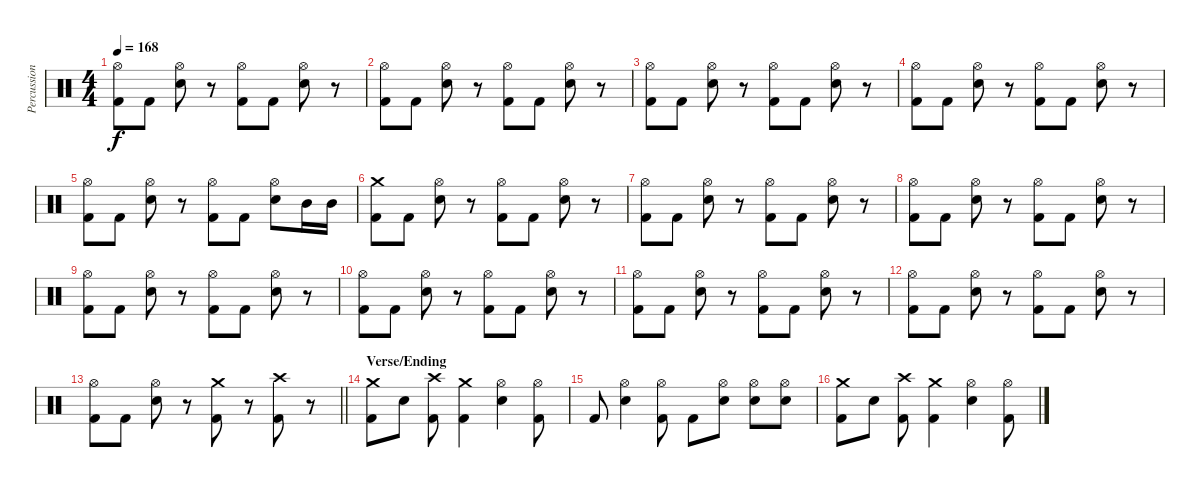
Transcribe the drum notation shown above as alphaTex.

\track ("Percussion" "Percussion") {instrument percussion}
\staff {score}
\articulation defaults
\ts (4 4)
\tempo 168
\clef neutral
\ks c
("Hi-Hat (open)" "Kick (hit) 2").8{dy f} "Kick (hit) 2".8 ("Hi-Hat (open)" "Snare (hit) 2").8 r.8 ("Hi-Hat (open)" "Kick (hit) 2").8 "Kick (hit) 2".8 ("Hi-Hat (open)" "Snare (hit) 2").8 r.8 |
("Hi-Hat (open)" "Kick (hit) 2").8 "Kick (hit) 2".8 ("Hi-Hat (open)" "Snare (hit) 2").8 r.8 ("Hi-Hat (open)" "Kick (hit) 2").8 "Kick (hit) 2".8 ("Hi-Hat (open)" "Snare (hit) 2").8 r.8 |
("Hi-Hat (open)" "Kick (hit) 2").8 "Kick (hit) 2".8 ("Hi-Hat (open)" "Snare (hit) 2").8 r.8 ("Hi-Hat (open)" "Kick (hit) 2").8 "Kick (hit) 2".8 ("Hi-Hat (open)" "Snare (hit) 2").8 r.8 |
("Hi-Hat (open)" "Kick (hit) 2").8 "Kick (hit) 2".8 ("Hi-Hat (open)" "Snare (hit) 2").8 r.8 ("Hi-Hat (open)" "Kick (hit) 2").8 "Kick (hit) 2".8 ("Hi-Hat (open)" "Snare (hit) 2").8 r.8 |
("Hi-Hat (open)" "Kick (hit) 2").8 "Kick (hit) 2".8 ("Hi-Hat (open)" "Snare (hit) 2").8 r.8 ("Hi-Hat (open)" "Kick (hit) 2").8 "Kick (hit) 2".8 ("Hi-Hat (open)" "Snare (hit) 2").8 "Mid Tom (hit)".16 "Mid Tom (hit)".16 |
("Crash medium (hit)" "Kick (hit) 2").8 "Kick (hit) 2".8 ("Hi-Hat (open)" "Snare (hit) 2").8 r.8 ("Hi-Hat (open)" "Kick (hit) 2").8 "Kick (hit) 2".8 ("Hi-Hat (open)" "Snare (hit) 2").8 r.8 |
("Hi-Hat (open)" "Kick (hit) 2").8 "Kick (hit) 2".8 ("Hi-Hat (open)" "Snare (hit) 2").8 r.8 ("Hi-Hat (open)" "Kick (hit) 2").8 "Kick (hit) 2".8 ("Hi-Hat (open)" "Snare (hit) 2").8 r.8 |
("Hi-Hat (open)" "Kick (hit) 2").8 "Kick (hit) 2".8 ("Hi-Hat (open)" "Snare (hit) 2").8 r.8 ("Hi-Hat (open)" "Kick (hit) 2").8 "Kick (hit) 2".8 ("Hi-Hat (open)" "Snare (hit) 2").8 r.8 |
("Hi-Hat (open)" "Kick (hit) 2").8 "Kick (hit) 2".8 ("Hi-Hat (open)" "Snare (hit) 2").8 r.8 ("Hi-Hat (open)" "Kick (hit) 2").8 "Kick (hit) 2".8 ("Hi-Hat (open)" "Snare (hit) 2").8 r.8 |
("Hi-Hat (open)" "Kick (hit) 2").8 "Kick (hit) 2".8 ("Hi-Hat (open)" "Snare (hit) 2").8 r.8 ("Hi-Hat (open)" "Kick (hit) 2").8 "Kick (hit) 2".8 ("Hi-Hat (open)" "Snare (hit) 2").8 r.8 |
("Hi-Hat (open)" "Kick (hit) 2").8 "Kick (hit) 2".8 ("Hi-Hat (open)" "Snare (hit) 2").8 r.8 ("Hi-Hat (open)" "Kick (hit) 2").8 "Kick (hit) 2".8 ("Hi-Hat (open)" "Snare (hit) 2").8 r.8 |
("Hi-Hat (open)" "Kick (hit) 2").8 "Kick (hit) 2".8 ("Hi-Hat (open)" "Snare (hit) 2").8 r.8 ("Hi-Hat (open)" "Kick (hit) 2").8 "Kick (hit) 2".8 ("Hi-Hat (open)" "Snare (hit) 2").8 r.8 |
\barLineRight lightlight
("Hi-Hat (open)" "Kick (hit) 2").8 "Kick (hit) 2".8 ("Hi-Hat (open)" "Snare (hit) 2").8 r.8 ("Crash medium (hit)" "Kick (hit) 2").8 r.8 ("Crash high (hit)" "Kick (hit) 2").8 r.8 |
\section ("" "Verse/Ending")
("Crash medium (hit)" "Kick (hit) 2").8 "Snare (hit) 2".8 ("Crash high (hit)" "Kick (hit) 2").8 ("Crash medium (hit)" "Kick (hit) 2").4 ("Hi-Hat (open)" "Snare (hit) 2").4 ("Hi-Hat (open)" "Kick (hit) 2").8 |
"Kick (hit) 2".8 ("Hi-Hat (open)" "Snare (hit) 2").4 ("Hi-Hat (open)" "Kick (hit) 2").8 "Kick (hit) 2".8 ("Hi-Hat (open)" "Snare (hit) 2").8 ("Hi-Hat (open)" "Snare (hit) 2").8 ("Hi-Hat (open)" "Snare (hit) 2").8 |
("Crash medium (hit)" "Kick (hit) 2").8 "Snare (hit) 2".8 ("Crash high (hit)" "Kick (hit) 2").8 ("Crash medium (hit)" "Kick (hit) 2").4 ("Hi-Hat (open)" "Snare (hit) 2").4 ("Hi-Hat (open)" "Kick (hit) 2").8
